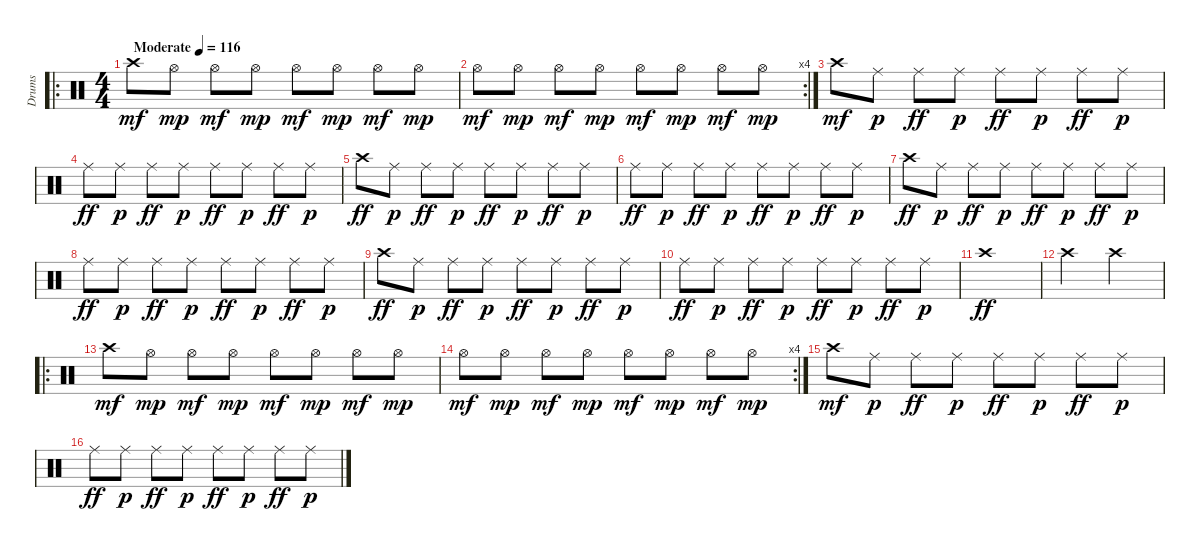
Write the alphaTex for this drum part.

\track ("Drums" "Drums") {instrument percussion}
\staff {score}
\articulation defaults
\ro
\ts (4 4)
\tempo (116 "Moderate")
\clef neutral
\ks c "Crash high (hit)".8{dy mf} "Hi-Hat (open)".8{dy mp} "Hi-Hat (open)".8{dy mf} "Hi-Hat (open)".8{dy mp} "Hi-Hat (open)".8{dy mf} "Hi-Hat (open)".8{dy mp} "Hi-Hat (open)".8{dy mf} "Hi-Hat (open)".8{dy mp}
|
\rc 4 "Hi-Hat (open)".8{dy mf} "Hi-Hat (open)".8{dy mp} "Hi-Hat (open)".8{dy mf} "Hi-Hat (open)".8{dy mp} "Hi-Hat (open)".8{dy mf} "Hi-Hat (open)".8{dy mp} "Hi-Hat (open)".8{dy mf} "Hi-Hat (open)".8{dy mp}
|
"Crash high (hit)".8{dy mf} "Ride (middle)".8{dy p} "Ride (middle)".8{dy ff} "Ride (middle)".8{dy p} "Ride (middle)".8{dy ff} "Ride (middle)".8{dy p} "Ride (middle)".8{dy ff} "Ride (middle)".8{dy p} |
"Ride (middle)".8{dy ff} "Ride (middle)".8{dy p} "Ride (middle)".8{dy ff} "Ride (middle)".8{dy p} "Ride (middle)".8{dy ff} "Ride (middle)".8{dy p} "Ride (middle)".8{dy ff} "Ride (middle)".8{dy p} |
"Crash high (hit)".8{dy ff} "Ride (middle)".8{dy p} "Ride (middle)".8{dy ff} "Ride (middle)".8{dy p} "Ride (middle)".8{dy ff} "Ride (middle)".8{dy p} "Ride (middle)".8{dy ff} "Ride (middle)".8{dy p} |
"Ride (middle)".8{dy ff} "Ride (middle)".8{dy p} "Ride (middle)".8{dy ff} "Ride (middle)".8{dy p} "Ride (middle)".8{dy ff} "Ride (middle)".8{dy p} "Ride (middle)".8{dy ff} "Ride (middle)".8{dy p} |
"Crash high (hit)".8{dy ff} "Ride (middle)".8{dy p} "Ride (middle)".8{dy ff} "Ride (middle)".8{dy p} "Ride (middle)".8{dy ff} "Ride (middle)".8{dy p} "Ride (middle)".8{dy ff} "Ride (middle)".8{dy p} |
"Ride (middle)".8{dy ff} "Ride (middle)".8{dy p} "Ride (middle)".8{dy ff} "Ride (middle)".8{dy p} "Ride (middle)".8{dy ff} "Ride (middle)".8{dy p} "Ride (middle)".8{dy ff} "Ride (middle)".8{dy p} |
"Crash high (hit)".8{dy ff} "Ride (middle)".8{dy p} "Ride (middle)".8{dy ff} "Ride (middle)".8{dy p} "Ride (middle)".8{dy ff} "Ride (middle)".8{dy p} "Ride (middle)".8{dy ff} "Ride (middle)".8{dy p} |
"Ride (middle)".8{dy ff} "Ride (middle)".8{dy p} "Ride (middle)".8{dy ff} "Ride (middle)".8{dy p} "Ride (middle)".8{dy ff} "Ride (middle)".8{dy p} "Ride (middle)".8{dy ff} "Ride (middle)".8{dy p} |
"Crash high (hit)".1{dy ff} |
"Crash high (hit)".2 "Crash high (hit)".2 |
\ro "Crash high (hit)".8{dy mf} "Hi-Hat (open)".8{dy mp} "Hi-Hat (open)".8{dy mf} "Hi-Hat (open)".8{dy mp} "Hi-Hat (open)".8{dy mf} "Hi-Hat (open)".8{dy mp} "Hi-Hat (open)".8{dy mf} "Hi-Hat (open)".8{dy mp}
|
\rc 4 "Hi-Hat (open)".8{dy mf} "Hi-Hat (open)".8{dy mp} "Hi-Hat (open)".8{dy mf} "Hi-Hat (open)".8{dy mp} "Hi-Hat (open)".8{dy mf} "Hi-Hat (open)".8{dy mp} "Hi-Hat (open)".8{dy mf} "Hi-Hat (open)".8{dy mp}
|
"Crash high (hit)".8{dy mf} "Ride (middle)".8{dy p} "Ride (middle)".8{dy ff} "Ride (middle)".8{dy p} "Ride (middle)".8{dy ff} "Ride (middle)".8{dy p} "Ride (middle)".8{dy ff} "Ride (middle)".8{dy p} |
"Ride (middle)".8{dy ff} "Ride (middle)".8{dy p} "Ride (middle)".8{dy ff} "Ride (middle)".8{dy p} "Ride (middle)".8{dy ff} "Ride (middle)".8{dy p} "Ride (middle)".8{dy ff} "Ride (middle)".8{dy p}
